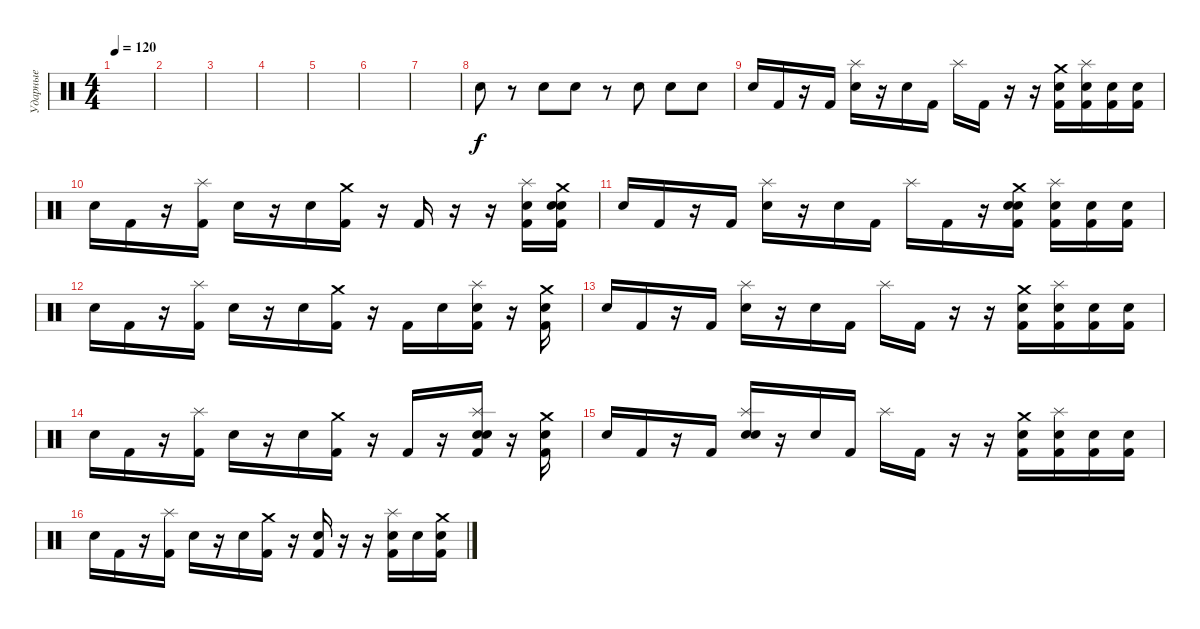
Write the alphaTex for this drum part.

\track ("Ударные" "Ударные") {instrument percussion}
\staff {score}
\articulation defaults
\ts (4 4)
\tempo 120
\clef neutral
\ks c
|
|
|
|
|
|
|
"Electric Snare (hit)".8 r.8 "Electric Snare (hit)".8 "Electric Snare (hit)".8 r.8 "Electric Snare (hit)".8 "Electric Snare (hit)".8 "Electric Snare (hit)".8 |
"Electric Snare (hit)".16 "Kick (hit) 2".16 r.16 "Kick (hit) 2".16 ("Splash (hit)" "Electric Snare (hit)").16 r.16 "Electric Snare (hit)".16 "Kick (hit) 2".16 "Splash (hit)".16 "Kick (hit) 2".16 r.16 r.16 ("Crash medium (hit)" "Electric Snare (hit)" "Kick (hit) 2").16 ("Splash (hit)" "Electric Snare (hit)" "Kick (hit) 2").16 ("Electric Snare (hit)" "Kick (hit) 2").16 ("Electric Snare (hit)" "Kick (hit) 2").16 |
"Electric Snare (hit)".16 "Kick (hit) 2".16 r.16 ("Splash (hit)" "Kick (hit) 2").16 "Electric Snare (hit)".16 r.16 "Electric Snare (hit)".16 ("Crash medium (hit)" "Kick (hit) 2").16 r.16 "Kick (hit) 2".16 r.16 r.16 ("Splash (hit)" "Electric Snare (hit)" "Kick (hit) 2").16 ("Crash medium (hit)" "Snare (hit)" "Electric Snare (hit)" "Kick (hit) 2").16 |
"Electric Snare (hit)".16 "Kick (hit) 2".16 r.16 "Kick (hit) 2".16 ("Splash (hit)" "Electric Snare (hit)").16 r.16 "Electric Snare (hit)".16 "Kick (hit) 2".16 "Splash (hit)".16 "Kick (hit) 2".16 r.16 ("Crash medium (hit)" "Snare (hit)" "Electric Snare (hit)" "Kick (hit) 2").16 ("Splash (hit)" "Electric Snare (hit)" "Kick (hit) 2").16 ("Electric Snare (hit)" "Kick (hit) 2").16 ("Electric Snare (hit)" "Kick (hit) 2").16 |
"Electric Snare (hit)".16 "Kick (hit) 2".16 r.16 ("Splash (hit)" "Kick (hit) 2").16 "Electric Snare (hit)".16 r.16 "Electric Snare (hit)".16 ("Crash medium (hit)" "Kick (hit) 2").16 r.16 "Kick (hit) 2".16 "Snare (hit)".16 ("Splash (hit)" "Electric Snare (hit)" "Kick (hit) 2").16 r.16 ("Crash medium (hit)" "Electric Snare (hit)" "Kick (hit) 2").16 |
"Electric Snare (hit)".16 "Kick (hit) 2".16 r.16 "Kick (hit) 2".16 ("Splash (hit)" "Electric Snare (hit)").16 r.16 "Electric Snare (hit)".16 "Kick (hit) 2".16 "Splash (hit)".16 "Kick (hit) 2".16 r.16 r.16 ("Crash medium (hit)" "Electric Snare (hit)" "Kick (hit) 2").16 ("Splash (hit)" "Electric Snare (hit)" "Kick (hit) 2").16 ("Electric Snare (hit)" "Kick (hit) 2").16 ("Electric Snare (hit)" "Kick (hit) 2").16 |
"Electric Snare (hit)".16 "Kick (hit) 2".16 r.16 ("Splash (hit)" "Kick (hit) 2").16 "Electric Snare (hit)".16 r.16 "Electric Snare (hit)".16 ("Crash medium (hit)" "Kick (hit) 2").16 r.16 "Kick (hit) 2".16 r.16 ("Splash (hit)" "Snare (hit)" "Electric Snare (hit)" "Kick (hit) 2").16 r.16 ("Crash medium (hit)" "Electric Snare (hit)" "Kick (hit) 2").16 |
"Electric Snare (hit)".16 "Kick (hit) 2".16 r.16 "Kick (hit) 2".16 ("Splash (hit)" "Snare (hit)" "Electric Snare (hit)").16 r.16 "Electric Snare (hit)".16 "Kick (hit) 2".16 "Splash (hit)".16 "Kick (hit) 2".16 r.16 r.16 ("Crash medium (hit)" "Electric Snare (hit)" "Kick (hit) 2").16 ("Splash (hit)" "Electric Snare (hit)" "Kick (hit) 2").16 ("Electric Snare (hit)" "Kick (hit) 2").16 ("Electric Snare (hit)" "Kick (hit) 2").16 |
"Electric Snare (hit)".16 "Kick (hit) 2".16 r.16 ("Splash (hit)" "Kick (hit) 2").16 "Electric Snare (hit)".16 r.16 "Electric Snare (hit)".16 ("Crash medium (hit)" "Kick (hit) 2").16 r.16 ("Snare (hit)" "Kick (hit) 2").16 r.16 r.16 ("Splash (hit)" "Electric Snare (hit)" "Kick (hit) 2").16 "Snare (hit)".16 ("Crash medium (hit)" "Electric Snare (hit)" "Kick (hit) 2").16
